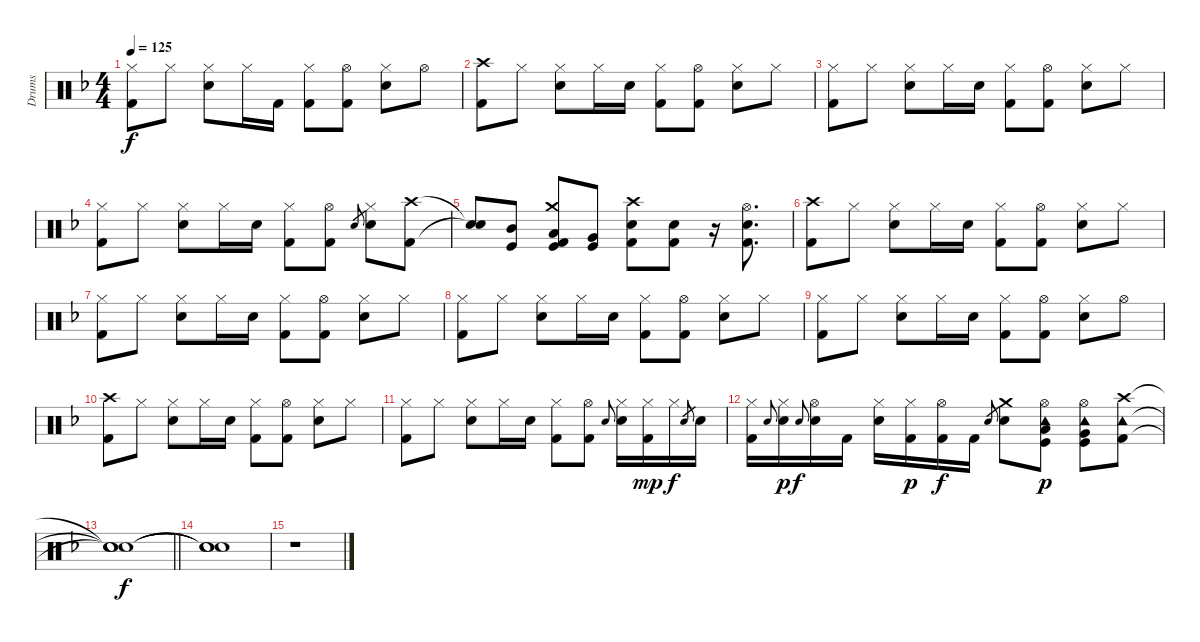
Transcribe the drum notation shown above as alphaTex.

\track ("Drums" "Drums") {instrument percussion}
\staff {score}
\articulation defaults
\ts (4 4)
\tempo 125
\clef neutral
\ks f
("Hi-Hat (closed)" "Kick (hit) 2").8{dy f} "Hi-Hat (closed)".8 ("Hi-Hat (closed)" "Electric Snare (hit)").8 "Hi-Hat (closed)".16 "Kick (hit) 2".16 ("Hi-Hat (closed)" "Kick (hit) 2").8 ("Hi-Hat (open)" "Kick (hit) 2").8 ("Hi-Hat (closed)" "Electric Snare (hit)").8 "Hi-Hat (open)".8 |
("Crash high (hit)" "Kick (hit) 2").8 "Hi-Hat (closed)".8 ("Hi-Hat (closed)" "Electric Snare (hit)").8 "Hi-Hat (closed)".16 "Electric Snare (hit)".16 ("Hi-Hat (closed)" "Kick (hit) 2").8 ("Hi-Hat (open)" "Kick (hit) 2").8 ("Hi-Hat (closed)" "Electric Snare (hit)").8 "Hi-Hat (closed)".8 |
("Hi-Hat (closed)" "Kick (hit) 2").8 "Hi-Hat (closed)".8 ("Hi-Hat (closed)" "Electric Snare (hit)").8 "Hi-Hat (closed)".16 "Electric Snare (hit)".16 ("Hi-Hat (closed)" "Kick (hit) 2").8 ("Hi-Hat (open)" "Kick (hit) 2").8 ("Hi-Hat (closed)" "Electric Snare (hit)").8 "Hi-Hat (closed)".8 |
("Hi-Hat (closed)" "Kick (hit) 2").8 "Hi-Hat (closed)".8 ("Hi-Hat (closed)" "Electric Snare (hit)").8 "Hi-Hat (closed)".16 "Electric Snare (hit)".16 ("Hi-Hat (closed)" "Kick (hit) 2").8 ("Hi-Hat (open)" "Kick (hit) 2").8 "Electric Snare (hit)".8{gr} ("Hi-Hat (closed)" "Electric Snare (hit)").8 ("Crash high (hit)" "Kick (hit) 2").8 |
("Snare (hit)"{t} "Snare (hit)"{t}).8 ("Mid Tom (hit)" "Kick (hit)").8 ("Crash medium (hit)" "Low Tom (hit)" "Kick (hit)" "Kick (hit) 2").8 ("Very Low Tom (hit)" "Kick (hit)").8 ("Crash high (hit)" "Electric Snare (hit)" "Kick (hit) 2").8 ("Electric Snare (hit)" "Kick (hit) 2").8 r.16 ("Hi-Hat (open)" "Electric Snare (hit)" "Kick (hit) 2").8{d} |
("Crash high (hit)" "Kick (hit) 2").8 "Hi-Hat (closed)".8 ("Hi-Hat (closed)" "Electric Snare (hit)").8 "Hi-Hat (closed)".16 "Electric Snare (hit)".16 ("Hi-Hat (closed)" "Kick (hit) 2").8 ("Hi-Hat (open)" "Kick (hit) 2").8 ("Hi-Hat (closed)" "Electric Snare (hit)").8 "Hi-Hat (closed)".8 |
("Hi-Hat (closed)" "Kick (hit) 2").8 "Hi-Hat (closed)".8 ("Hi-Hat (closed)" "Electric Snare (hit)").8 "Hi-Hat (closed)".16 "Electric Snare (hit)".16 ("Hi-Hat (closed)" "Kick (hit) 2").8 ("Hi-Hat (open)" "Kick (hit) 2").8 ("Hi-Hat (closed)" "Electric Snare (hit)").8 "Hi-Hat (closed)".8 |
("Hi-Hat (closed)" "Kick (hit) 2").8 "Hi-Hat (closed)".8 ("Hi-Hat (closed)" "Electric Snare (hit)").8 "Hi-Hat (closed)".16 "Electric Snare (hit)".16 ("Hi-Hat (closed)" "Kick (hit) 2").8 ("Hi-Hat (open)" "Kick (hit) 2").8 ("Hi-Hat (closed)" "Electric Snare (hit)").8 "Hi-Hat (closed)".8 |
("Hi-Hat (closed)" "Kick (hit) 2").8 "Hi-Hat (closed)".8 ("Hi-Hat (closed)" "Electric Snare (hit)").8 "Hi-Hat (closed)".16 "Electric Snare (hit)".16 ("Hi-Hat (closed)" "Kick (hit) 2").8 ("Hi-Hat (open)" "Kick (hit) 2").8 ("Hi-Hat (closed)" "Electric Snare (hit)").8 "Hi-Hat (open)".8 |
("Crash high (hit)" "Kick (hit) 2").8 "Hi-Hat (closed)".8 ("Hi-Hat (closed)" "Electric Snare (hit)").8 "Hi-Hat (closed)".16 "Electric Snare (hit)".16 ("Hi-Hat (closed)" "Kick (hit) 2").8 ("Hi-Hat (open)" "Kick (hit) 2").8 ("Hi-Hat (closed)" "Electric Snare (hit)").8 "Hi-Hat (closed)".8 |
("Hi-Hat (closed)" "Kick (hit) 2").8 "Hi-Hat (closed)".8 ("Hi-Hat (closed)" "Electric Snare (hit)").8 "Hi-Hat (closed)".16 "Electric Snare (hit)".16 ("Hi-Hat (closed)" "Kick (hit) 2").8 ("Hi-Hat (open)" "Kick (hit) 2").8 "Electric Snare (hit)".8{gr onbeat} ("Hi-Hat (closed)" "Electric Snare (hit)").16 ("Hi-Hat (closed)" "Kick (hit) 2").16{dy mp} "Hi-Hat (closed)".16{dy f} "Electric Snare (hit)".8{gr} "Electric Snare (hit)".16 |
("Hi-Hat (closed)" "Kick (hit) 2").16 "Electric Snare (hit)".8{gr onbeat} ("Hi-Hat (closed)" "Electric Snare (hit)").16{dy p} "Electric Snare (hit)".8{gr onbeat dy f} ("Hi-Hat (open)" "Electric Snare (hit)").16 "Kick (hit) 2".16 ("Hi-Hat (closed)" "Electric Snare (hit)").16 ("Hi-Hat (closed)" "Kick (hit) 2").16{dy p} ("Hi-Hat (open)" "Kick (hit) 2").16{dy f} "Kick (hit) 2".16 "Electric Snare (hit)".8{gr} ("Crash medium (hit)" "Electric Snare (hit)").8 ("Hi-Hat (open)" "Low Tom (hit)" "Kick (hit)" "Tambourine (hit)").8{dy p} ("Hi-Hat (open)" "Very Low Tom (hit)" "Kick (hit)" "Tambourine (hit)").8 ("Crash high (hit)" "Kick (hit) 2" "Tambourine (hit)").8 |
\barLineRight lightlight
("Snare (hit)"{t} "Snare (hit)"{t} "Snare (hit)"{t}).1{dy f} |
("Snare (hit)"{t} "Snare (hit)"{t} "Snare (hit)"{t}).1 |
r.1
